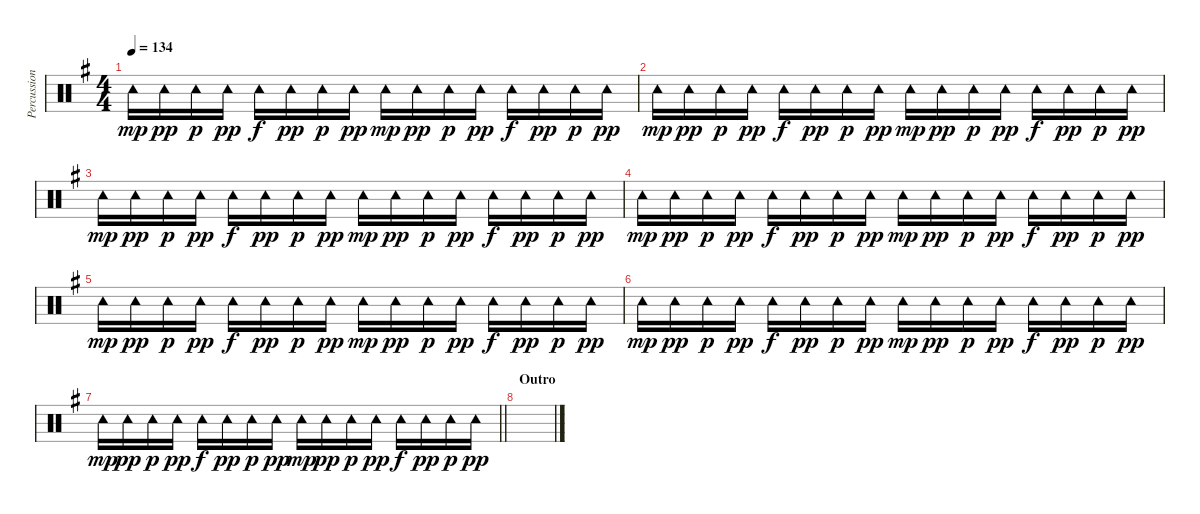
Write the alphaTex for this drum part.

\track ("Percussion" "Percussion") {instrument percussion}
\staff {score}
\articulation defaults
\ts (4 4)
\tempo 134
\clef neutral
\ks eminor "Tambourine (hit)".16{dy mp} "Tambourine (hit)".16{dy pp} "Tambourine (hit)".16{dy p} "Tambourine (hit)".16{dy pp} "Tambourine (hit)".16{dy f} "Tambourine (hit)".16{dy pp} "Tambourine (hit)".16{dy p} "Tambourine (hit)".16{dy pp} "Tambourine (hit)".16{dy mp} "Tambourine (hit)".16{dy pp} "Tambourine (hit)".16{dy p} "Tambourine (hit)".16{dy pp} "Tambourine (hit)".16{dy f} "Tambourine (hit)".16{dy pp} "Tambourine (hit)".16{dy p} "Tambourine (hit)".16{dy pp}
|
"Tambourine (hit)".16{dy mp} "Tambourine (hit)".16{dy pp} "Tambourine (hit)".16{dy p} "Tambourine (hit)".16{dy pp} "Tambourine (hit)".16{dy f} "Tambourine (hit)".16{dy pp} "Tambourine (hit)".16{dy p} "Tambourine (hit)".16{dy pp} "Tambourine (hit)".16{dy mp} "Tambourine (hit)".16{dy pp} "Tambourine (hit)".16{dy p} "Tambourine (hit)".16{dy pp} "Tambourine (hit)".16{dy f} "Tambourine (hit)".16{dy pp} "Tambourine (hit)".16{dy p} "Tambourine (hit)".16{dy pp} |
"Tambourine (hit)".16{dy mp} "Tambourine (hit)".16{dy pp} "Tambourine (hit)".16{dy p} "Tambourine (hit)".16{dy pp} "Tambourine (hit)".16{dy f} "Tambourine (hit)".16{dy pp} "Tambourine (hit)".16{dy p} "Tambourine (hit)".16{dy pp} "Tambourine (hit)".16{dy mp} "Tambourine (hit)".16{dy pp} "Tambourine (hit)".16{dy p} "Tambourine (hit)".16{dy pp} "Tambourine (hit)".16{dy f} "Tambourine (hit)".16{dy pp} "Tambourine (hit)".16{dy p} "Tambourine (hit)".16{dy pp} |
"Tambourine (hit)".16{dy mp} "Tambourine (hit)".16{dy pp} "Tambourine (hit)".16{dy p} "Tambourine (hit)".16{dy pp} "Tambourine (hit)".16{dy f} "Tambourine (hit)".16{dy pp} "Tambourine (hit)".16{dy p} "Tambourine (hit)".16{dy pp} "Tambourine (hit)".16{dy mp} "Tambourine (hit)".16{dy pp} "Tambourine (hit)".16{dy p} "Tambourine (hit)".16{dy pp} "Tambourine (hit)".16{dy f} "Tambourine (hit)".16{dy pp} "Tambourine (hit)".16{dy p} "Tambourine (hit)".16{dy pp} |
"Tambourine (hit)".16{dy mp} "Tambourine (hit)".16{dy pp} "Tambourine (hit)".16{dy p} "Tambourine (hit)".16{dy pp} "Tambourine (hit)".16{dy f} "Tambourine (hit)".16{dy pp} "Tambourine (hit)".16{dy p} "Tambourine (hit)".16{dy pp} "Tambourine (hit)".16{dy mp} "Tambourine (hit)".16{dy pp} "Tambourine (hit)".16{dy p} "Tambourine (hit)".16{dy pp} "Tambourine (hit)".16{dy f} "Tambourine (hit)".16{dy pp} "Tambourine (hit)".16{dy p} "Tambourine (hit)".16{dy pp} |
"Tambourine (hit)".16{dy mp} "Tambourine (hit)".16{dy pp} "Tambourine (hit)".16{dy p} "Tambourine (hit)".16{dy pp} "Tambourine (hit)".16{dy f} "Tambourine (hit)".16{dy pp} "Tambourine (hit)".16{dy p} "Tambourine (hit)".16{dy pp} "Tambourine (hit)".16{dy mp} "Tambourine (hit)".16{dy pp} "Tambourine (hit)".16{dy p} "Tambourine (hit)".16{dy pp} "Tambourine (hit)".16{dy f} "Tambourine (hit)".16{dy pp} "Tambourine (hit)".16{dy p} "Tambourine (hit)".16{dy pp} |
\barLineRight lightlight "Tambourine (hit)".16{dy mp} "Tambourine (hit)".16{dy pp} "Tambourine (hit)".16{dy p} "Tambourine (hit)".16{dy pp} "Tambourine (hit)".16{dy f} "Tambourine (hit)".16{dy pp} "Tambourine (hit)".16{dy p} "Tambourine (hit)".16{dy pp} "Tambourine (hit)".16{dy mp} "Tambourine (hit)".16{dy pp} "Tambourine (hit)".16{dy p} "Tambourine (hit)".16{dy pp} "Tambourine (hit)".16{dy f} "Tambourine (hit)".16{dy pp} "Tambourine (hit)".16{dy p} "Tambourine (hit)".16{dy pp}
|
\section ("" "Outro")
